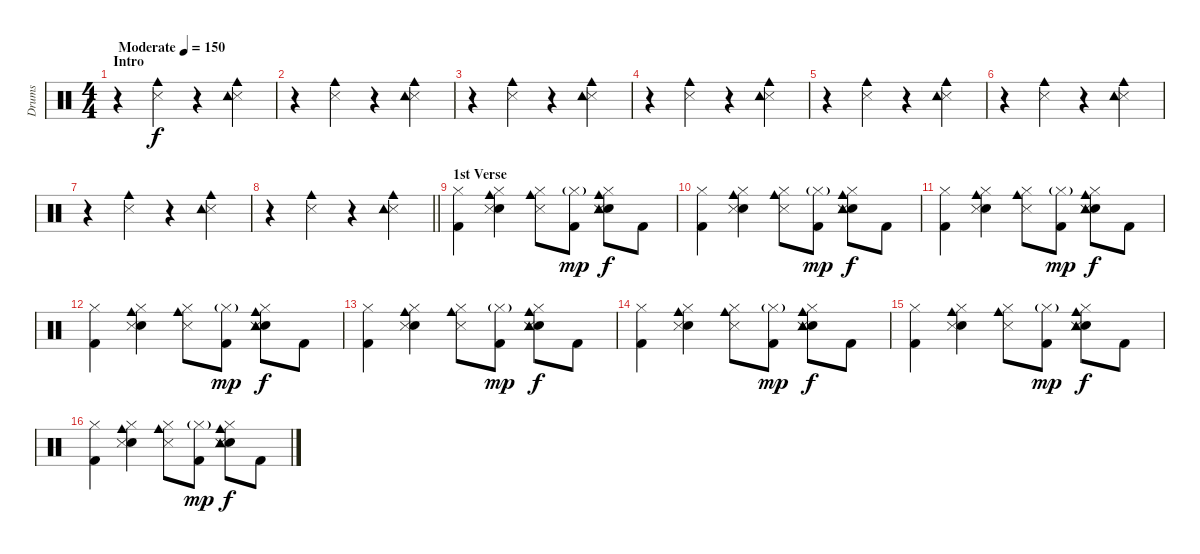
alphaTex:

\track ("Drums" "Drums") {instrument percussion}
\staff {score}
\articulation defaults
\ts (4 4)
\section ("" "Intro")
\tempo (150 "Moderate")
\clef neutral
\ks c
r.4{dy f} ("Cowbell medium (hit)" "Snare (side stick) 3").4 r.4 ("Cowbell medium (hit)" "Snare (side stick) 3" "Tambourine (hit)").4 |
r.4 ("Cowbell medium (hit)" "Snare (side stick) 3").4 r.4 ("Cowbell medium (hit)" "Snare (side stick) 3" "Tambourine (hit)").4 |
r.4 ("Cowbell medium (hit)" "Snare (side stick) 3").4 r.4 ("Cowbell medium (hit)" "Snare (side stick) 3" "Tambourine (hit)").4 |
r.4 ("Cowbell medium (hit)" "Snare (side stick) 3").4 r.4 ("Cowbell medium (hit)" "Snare (side stick) 3" "Tambourine (hit)").4 |
r.4 ("Cowbell medium (hit)" "Snare (side stick) 3").4 r.4 ("Cowbell medium (hit)" "Snare (side stick) 3" "Tambourine (hit)").4 |
r.4 ("Cowbell medium (hit)" "Snare (side stick) 3").4 r.4 ("Cowbell medium (hit)" "Snare (side stick) 3" "Tambourine (hit)").4 |
r.4 ("Cowbell medium (hit)" "Snare (side stick) 3").4 r.4 ("Cowbell medium (hit)" "Snare (side stick) 3" "Tambourine (hit)").4 |
\barLineRight lightlight
r.4 ("Cowbell medium (hit)" "Snare (side stick) 3").4 r.4 ("Cowbell medium (hit)" "Snare (side stick) 3" "Tambourine (hit)").4 |
\section ("" "1st Verse")
("Kick (hit) 2" "Hi-Hat (closed)").4 ("Electric Snare (hit)" "Hi-Hat (closed)" "Cowbell medium (hit)" "Snare (side stick) 3").4 ("Hi-Hat (closed)" "Cowbell medium (hit)" "Snare (side stick) 3").8 ("Kick (hit) 2" "Hi-Hat (closed)"{g}).8{dy mp} ("Electric Snare (hit)" "Hi-Hat (closed)" "Cowbell medium (hit)" "Snare (side stick) 3" "Tambourine (hit)").8{dy f} "Kick (hit) 2".8 |
("Kick (hit) 2" "Hi-Hat (closed)").4 ("Electric Snare (hit)" "Hi-Hat (closed)" "Cowbell medium (hit)" "Snare (side stick) 3").4 ("Hi-Hat (closed)" "Cowbell medium (hit)" "Snare (side stick) 3").8 ("Kick (hit) 2" "Hi-Hat (closed)"{g}).8{dy mp} ("Electric Snare (hit)" "Hi-Hat (closed)" "Cowbell medium (hit)" "Snare (side stick) 3" "Tambourine (hit)").8{dy f} "Kick (hit) 2".8 |
("Kick (hit) 2" "Hi-Hat (closed)").4 ("Electric Snare (hit)" "Hi-Hat (closed)" "Cowbell medium (hit)" "Snare (side stick) 3").4 ("Hi-Hat (closed)" "Cowbell medium (hit)" "Snare (side stick) 3").8 ("Kick (hit) 2" "Hi-Hat (closed)"{g}).8{dy mp} ("Electric Snare (hit)" "Hi-Hat (closed)" "Cowbell medium (hit)" "Snare (side stick) 3" "Tambourine (hit)").8{dy f} "Kick (hit) 2".8 |
("Kick (hit) 2" "Hi-Hat (closed)").4 ("Electric Snare (hit)" "Hi-Hat (closed)" "Cowbell medium (hit)" "Snare (side stick) 3").4 ("Hi-Hat (closed)" "Cowbell medium (hit)" "Snare (side stick) 3").8 ("Kick (hit) 2" "Hi-Hat (closed)"{g}).8{dy mp} ("Electric Snare (hit)" "Hi-Hat (closed)" "Cowbell medium (hit)" "Snare (side stick) 3" "Tambourine (hit)").8{dy f} "Kick (hit) 2".8 |
("Kick (hit) 2" "Hi-Hat (closed)").4 ("Electric Snare (hit)" "Hi-Hat (closed)" "Cowbell medium (hit)" "Snare (side stick) 3").4 ("Hi-Hat (closed)" "Cowbell medium (hit)" "Snare (side stick) 3").8 ("Kick (hit) 2" "Hi-Hat (closed)"{g}).8{dy mp} ("Electric Snare (hit)" "Hi-Hat (closed)" "Cowbell medium (hit)" "Snare (side stick) 3" "Tambourine (hit)").8{dy f} "Kick (hit) 2".8 |
("Kick (hit) 2" "Hi-Hat (closed)").4 ("Electric Snare (hit)" "Hi-Hat (closed)" "Cowbell medium (hit)" "Snare (side stick) 3").4 ("Hi-Hat (closed)" "Cowbell medium (hit)" "Snare (side stick) 3").8 ("Kick (hit) 2" "Hi-Hat (closed)"{g}).8{dy mp} ("Electric Snare (hit)" "Hi-Hat (closed)" "Cowbell medium (hit)" "Snare (side stick) 3" "Tambourine (hit)").8{dy f} "Kick (hit) 2".8 |
("Kick (hit) 2" "Hi-Hat (closed)").4 ("Electric Snare (hit)" "Hi-Hat (closed)" "Cowbell medium (hit)" "Snare (side stick) 3").4 ("Hi-Hat (closed)" "Cowbell medium (hit)" "Snare (side stick) 3").8 ("Kick (hit) 2" "Hi-Hat (closed)"{g}).8{dy mp} ("Electric Snare (hit)" "Hi-Hat (closed)" "Cowbell medium (hit)" "Snare (side stick) 3" "Tambourine (hit)").8{dy f} "Kick (hit) 2".8 |
("Kick (hit) 2" "Hi-Hat (closed)").4 ("Electric Snare (hit)" "Hi-Hat (closed)" "Cowbell medium (hit)" "Snare (side stick) 3").4 ("Hi-Hat (closed)" "Cowbell medium (hit)" "Snare (side stick) 3").8 ("Kick (hit) 2" "Hi-Hat (closed)"{g}).8{dy mp} ("Electric Snare (hit)" "Hi-Hat (closed)" "Cowbell medium (hit)" "Snare (side stick) 3" "Tambourine (hit)").8{dy f} "Kick (hit) 2".8
